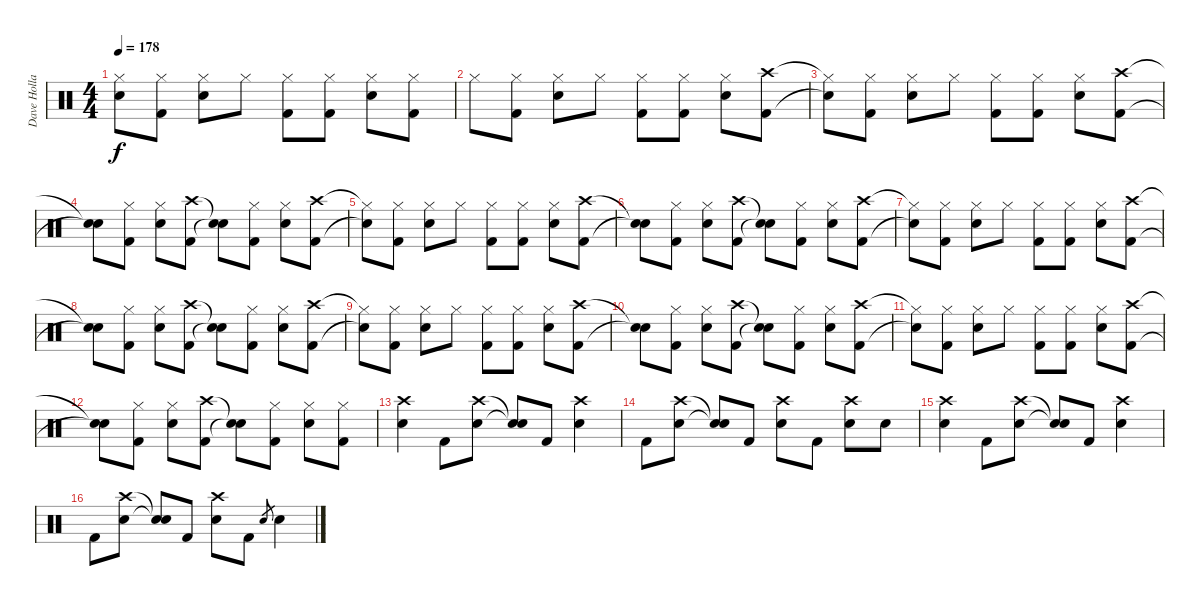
\track ("Dave Holland" "Dave Holla") {instrument percussion}
\staff {score}
\articulation defaults
\ts (4 4)
\tempo 178
\clef neutral
\ks c
("Hi-Hat (closed)"{t} "Snare (hit)"{t}).8{dy f} ("Hi-Hat (closed)" "Kick (hit) 2").8 ("Hi-Hat (closed)" "Snare (hit) 2").8 "Hi-Hat (closed)".8 ("Hi-Hat (closed)" "Kick (hit) 2").8 ("Hi-Hat (closed)" "Kick (hit) 2").8 ("Hi-Hat (closed)" "Snare (hit) 2").8 ("Hi-Hat (closed)" "Kick (hit) 2").8 |
"Hi-Hat (closed)".8 ("Hi-Hat (closed)" "Kick (hit) 2").8 ("Hi-Hat (closed)" "Snare (hit) 2").8 "Hi-Hat (closed)".8 ("Hi-Hat (closed)" "Kick (hit) 2").8 ("Hi-Hat (closed)" "Kick (hit) 2").8 ("Hi-Hat (closed)" "Snare (hit) 2").8 ("Crash high (hit)" "Kick (hit) 2").8 |
("Hi-Hat (closed)"{t} "Snare (hit)"{t}).8 ("Hi-Hat (closed)" "Kick (hit) 2").8 ("Hi-Hat (closed)" "Snare (hit) 2").8 "Hi-Hat (closed)".8 ("Hi-Hat (closed)" "Kick (hit) 2").8 ("Hi-Hat (closed)" "Kick (hit) 2").8 ("Hi-Hat (closed)" "Snare (hit) 2").8 ("Crash high (hit)" "Kick (hit) 2").8 |
("Snare (hit)"{t} "Snare (hit)"{t}).8 ("Hi-Hat (closed)" "Kick (hit) 2").8 ("Hi-Hat (closed)" "Snare (hit) 2").8 ("Crash high (hit)" "Kick (hit) 2").8 ("Snare (hit)"{t} "Snare (hit)"{t}).8 ("Hi-Hat (closed)" "Kick (hit) 2").8 ("Hi-Hat (closed)" "Snare (hit) 2").8 ("Crash high (hit)" "Kick (hit) 2").8 |
("Hi-Hat (closed)"{t} "Snare (hit)"{t}).8 ("Hi-Hat (closed)" "Kick (hit) 2").8 ("Hi-Hat (closed)" "Snare (hit) 2").8 "Hi-Hat (closed)".8 ("Hi-Hat (closed)" "Kick (hit) 2").8 ("Hi-Hat (closed)" "Kick (hit) 2").8 ("Hi-Hat (closed)" "Snare (hit) 2").8 ("Crash high (hit)" "Kick (hit) 2").8 |
("Snare (hit)"{t} "Snare (hit)"{t}).8 ("Hi-Hat (closed)" "Kick (hit) 2").8 ("Hi-Hat (closed)" "Snare (hit) 2").8 ("Crash high (hit)" "Kick (hit) 2").8 ("Snare (hit)"{t} "Snare (hit)"{t}).8 ("Hi-Hat (closed)" "Kick (hit) 2").8 ("Hi-Hat (closed)" "Snare (hit) 2").8 ("Crash high (hit)" "Kick (hit) 2").8 |
("Hi-Hat (closed)"{t} "Snare (hit)"{t}).8 ("Hi-Hat (closed)" "Kick (hit) 2").8 ("Hi-Hat (closed)" "Snare (hit) 2").8 "Hi-Hat (closed)".8 ("Hi-Hat (closed)" "Kick (hit) 2").8 ("Hi-Hat (closed)" "Kick (hit) 2").8 ("Hi-Hat (closed)" "Snare (hit) 2").8 ("Crash high (hit)" "Kick (hit) 2").8 |
("Snare (hit)"{t} "Snare (hit)"{t}).8 ("Hi-Hat (closed)" "Kick (hit) 2").8 ("Hi-Hat (closed)" "Snare (hit) 2").8 ("Crash high (hit)" "Kick (hit) 2").8 ("Snare (hit)"{t} "Snare (hit)"{t}).8 ("Hi-Hat (closed)" "Kick (hit) 2").8 ("Hi-Hat (closed)" "Snare (hit) 2").8 ("Crash high (hit)" "Kick (hit) 2").8 |
("Hi-Hat (closed)"{t} "Snare (hit)"{t}).8 ("Hi-Hat (closed)" "Kick (hit) 2").8 ("Hi-Hat (closed)" "Snare (hit) 2").8 "Hi-Hat (closed)".8 ("Hi-Hat (closed)" "Kick (hit) 2").8 ("Hi-Hat (closed)" "Kick (hit) 2").8 ("Hi-Hat (closed)" "Snare (hit) 2").8 ("Crash high (hit)" "Kick (hit) 2").8 |
("Snare (hit)"{t} "Snare (hit)"{t}).8 ("Hi-Hat (closed)" "Kick (hit) 2").8 ("Hi-Hat (closed)" "Snare (hit) 2").8 ("Crash high (hit)" "Kick (hit) 2").8 ("Snare (hit)"{t} "Snare (hit)"{t}).8 ("Hi-Hat (closed)" "Kick (hit) 2").8 ("Hi-Hat (closed)" "Snare (hit) 2").8 ("Crash high (hit)" "Kick (hit) 2").8 |
("Hi-Hat (closed)"{t} "Snare (hit)"{t}).8 ("Hi-Hat (closed)" "Kick (hit) 2").8 ("Hi-Hat (closed)" "Snare (hit) 2").8 "Hi-Hat (closed)".8 ("Hi-Hat (closed)" "Kick (hit) 2").8 ("Hi-Hat (closed)" "Kick (hit) 2").8 ("Hi-Hat (closed)" "Snare (hit) 2").8 ("Crash high (hit)" "Kick (hit) 2").8 |
("Snare (hit)"{t} "Snare (hit)"{t}).8 ("Hi-Hat (closed)" "Kick (hit) 2").8 ("Hi-Hat (closed)" "Snare (hit) 2").8 ("Crash high (hit)" "Kick (hit) 2").8 ("Snare (hit)"{t} "Snare (hit)"{t}).8 ("Hi-Hat (closed)" "Kick (hit) 2").8 ("Hi-Hat (closed)" "Snare (hit) 2").8 ("Hi-Hat (closed)" "Kick (hit) 2").8 |
("Crash high (hit)" "Snare (hit) 2").4 "Kick (hit) 2".8 ("Crash high (hit)" "Snare (hit) 2").8 ("Snare (hit)"{t} "Snare (hit)"{t}).8 "Kick (hit) 2".8 ("Crash high (hit)" "Snare (hit) 2").4 |
"Kick (hit) 2".8 ("Crash high (hit)" "Snare (hit) 2").8 ("Snare (hit)"{t} "Snare (hit)"{t}).8 "Kick (hit) 2".8 ("Crash high (hit)" "Snare (hit) 2").8 "Kick (hit) 2".8 ("Crash high (hit)" "Snare (hit) 2").8 "Snare (hit) 2".8 |
("Crash high (hit)" "Snare (hit) 2").4 "Kick (hit) 2".8 ("Crash high (hit)" "Snare (hit) 2").8 ("Snare (hit)"{t} "Snare (hit)"{t}).8 "Kick (hit) 2".8 ("Crash high (hit)" "Snare (hit) 2").4 |
"Kick (hit) 2".8 ("Crash high (hit)" "Snare (hit) 2").8 ("Snare (hit)"{t} "Snare (hit)"{t}).8 "Kick (hit) 2".8 ("Crash high (hit)" "Snare (hit) 2").8 "Kick (hit) 2".8 "Snare (hit) 2".8{gr} "Snare (hit) 2".4
